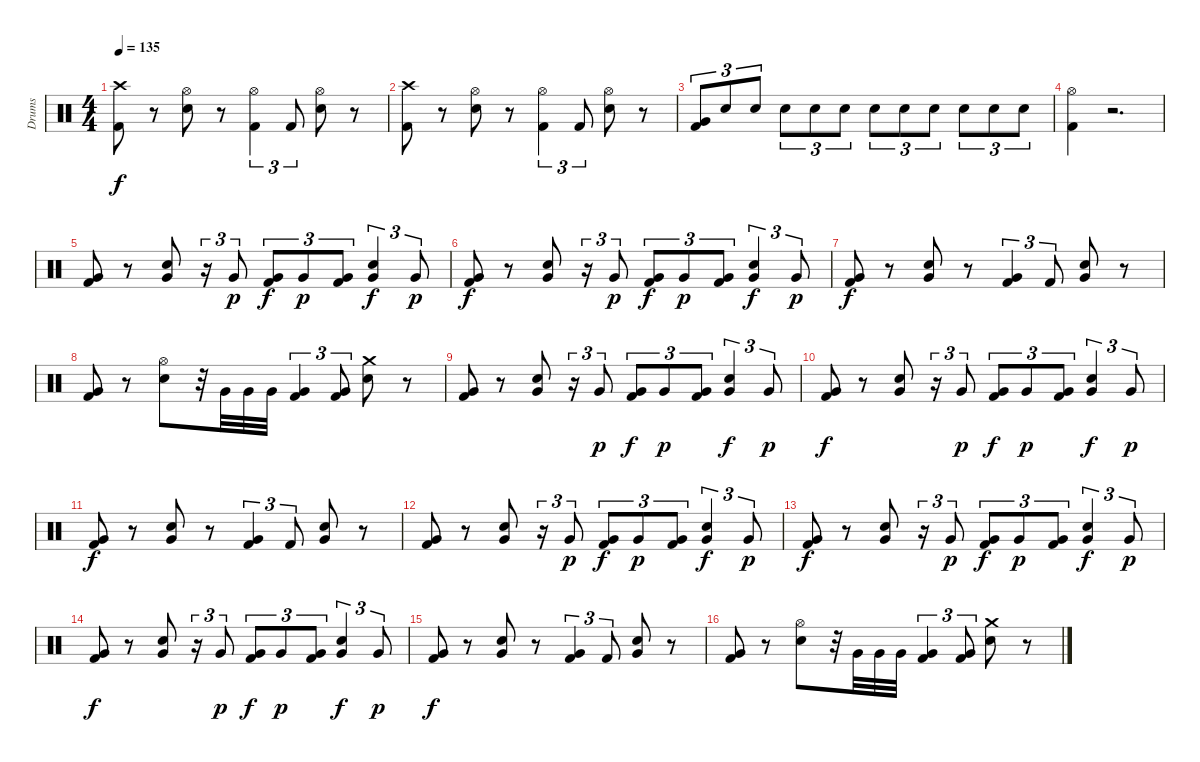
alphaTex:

\track ("Drums" "Drums") {instrument percussion}
\staff {score}
\articulation defaults
\ts (4 4)
\tempo 135
\clef neutral
\ks c
("Crash high (hit)" "Kick (hit) 2").8{dy f} r.8 ("Hi-Hat (open)" "Electric Snare (hit)").8 r.8 ("Hi-Hat (open)" "Kick (hit) 2").4{tu (3 2)} "Kick (hit) 2".8{tu (3 2)} ("Hi-Hat (open)" "Electric Snare (hit)").8 r.8 |
("Crash high (hit)" "Kick (hit) 2").8 r.8 ("Hi-Hat (open)" "Electric Snare (hit)").8 r.8 ("Hi-Hat (open)" "Kick (hit) 2").4{tu (3 2)} "Kick (hit) 2".8{tu (3 2)} ("Hi-Hat (open)" "Electric Snare (hit)").8 r.8 |
("Very Low Tom (hit)" "Kick (hit) 2").8{tu (3 2)} "Electric Snare (hit)".8{tu (3 2)} "Electric Snare (hit)".8{tu (3 2)} "Electric Snare (hit)".8{tu (3 2)} "Electric Snare (hit)".8{tu (3 2)} "Electric Snare (hit)".8{tu (3 2)} "Electric Snare (hit)".8{tu (3 2)} "Electric Snare (hit)".8{tu (3 2)} "Electric Snare (hit)".8{tu (3 2)} "Electric Snare (hit)".8{tu (3 2)} "Electric Snare (hit)".8{tu (3 2)} "Electric Snare (hit)".8{tu (3 2)} |
("Hi-Hat (open)" "Kick (hit) 2").4 r.2{d} |
("Very Low Tom (hit)" "Kick (hit) 2").8 r.8 ("Very Low Tom (hit)" "Electric Snare (hit)").8 r.16{tu (3 2)} "Very Low Tom (hit)".8{tu (3 2) dy p} ("Very Low Tom (hit)" "Kick (hit) 2").8{tu (3 2) dy f} "Very Low Tom (hit)".8{tu (3 2) dy p} ("Very Low Tom (hit)" "Kick (hit) 2").8{tu (3 2)} ("Very Low Tom (hit)" "Electric Snare (hit)").4{tu (3 2) dy f} "Very Low Tom (hit)".8{tu (3 2) dy p} |
("Very Low Tom (hit)" "Kick (hit) 2").8{dy f} r.8 ("Very Low Tom (hit)" "Electric Snare (hit)").8 r.16{tu (3 2)} "Very Low Tom (hit)".8{tu (3 2) dy p} ("Very Low Tom (hit)" "Kick (hit) 2").8{tu (3 2) dy f} "Very Low Tom (hit)".8{tu (3 2) dy p} ("Very Low Tom (hit)" "Kick (hit) 2").8{tu (3 2)} ("Very Low Tom (hit)" "Electric Snare (hit)").4{tu (3 2) dy f} "Very Low Tom (hit)".8{tu (3 2) dy p} |
("Very Low Tom (hit)" "Kick (hit) 2").8{dy f} r.8 ("Very Low Tom (hit)" "Electric Snare (hit)").8 r.8 ("Very Low Tom (hit)" "Kick (hit) 2").4{tu (3 2)} "Kick (hit) 2".8{tu (3 2)} ("Very Low Tom (hit)" "Electric Snare (hit)").8 r.8 |
("Very Low Tom (hit)" "Kick (hit) 2").8 r.8 ("Hi-Hat (open)" "Electric Snare (hit)").8 r.32 "Very Low Tom (hit)".32 "Very Low Tom (hit)".32 "Very Low Tom (hit)".32 ("Very Low Tom (hit)" "Kick (hit) 2").4{tu (3 2)} ("Very Low Tom (hit)" "Kick (hit) 2").8{tu (3 2)} ("Crash medium (hit)" "Electric Snare (hit)").8 r.8 |
("Very Low Tom (hit)" "Kick (hit) 2").8 r.8 ("Very Low Tom (hit)" "Electric Snare (hit)").8 r.16{tu (3 2)} "Very Low Tom (hit)".8{tu (3 2) dy p} ("Very Low Tom (hit)" "Kick (hit) 2").8{tu (3 2) dy f} "Very Low Tom (hit)".8{tu (3 2) dy p} ("Very Low Tom (hit)" "Kick (hit) 2").8{tu (3 2)} ("Very Low Tom (hit)" "Electric Snare (hit)").4{tu (3 2) dy f} "Very Low Tom (hit)".8{tu (3 2) dy p} |
("Very Low Tom (hit)" "Kick (hit) 2").8{dy f} r.8 ("Very Low Tom (hit)" "Electric Snare (hit)").8 r.16{tu (3 2)} "Very Low Tom (hit)".8{tu (3 2) dy p} ("Very Low Tom (hit)" "Kick (hit) 2").8{tu (3 2) dy f} "Very Low Tom (hit)".8{tu (3 2) dy p} ("Very Low Tom (hit)" "Kick (hit) 2").8{tu (3 2)} ("Very Low Tom (hit)" "Electric Snare (hit)").4{tu (3 2) dy f} "Very Low Tom (hit)".8{tu (3 2) dy p} |
("Very Low Tom (hit)" "Kick (hit) 2").8{dy f} r.8 ("Very Low Tom (hit)" "Electric Snare (hit)").8 r.8 ("Very Low Tom (hit)" "Kick (hit) 2").4{tu (3 2)} "Kick (hit) 2".8{tu (3 2)} ("Very Low Tom (hit)" "Electric Snare (hit)").8 r.8 |
("Very Low Tom (hit)" "Kick (hit) 2").8 r.8 ("Very Low Tom (hit)" "Electric Snare (hit)").8 r.16{tu (3 2)} "Very Low Tom (hit)".8{tu (3 2) dy p} ("Very Low Tom (hit)" "Kick (hit) 2").8{tu (3 2) dy f} "Very Low Tom (hit)".8{tu (3 2) dy p} ("Very Low Tom (hit)" "Kick (hit) 2").8{tu (3 2)} ("Very Low Tom (hit)" "Electric Snare (hit)").4{tu (3 2) dy f} "Very Low Tom (hit)".8{tu (3 2) dy p} |
("Very Low Tom (hit)" "Kick (hit) 2").8{dy f} r.8 ("Very Low Tom (hit)" "Electric Snare (hit)").8 r.16{tu (3 2)} "Very Low Tom (hit)".8{tu (3 2) dy p} ("Very Low Tom (hit)" "Kick (hit) 2").8{tu (3 2) dy f} "Very Low Tom (hit)".8{tu (3 2) dy p} ("Very Low Tom (hit)" "Kick (hit) 2").8{tu (3 2)} ("Very Low Tom (hit)" "Electric Snare (hit)").4{tu (3 2) dy f} "Very Low Tom (hit)".8{tu (3 2) dy p} |
("Very Low Tom (hit)" "Kick (hit) 2").8{dy f} r.8 ("Very Low Tom (hit)" "Electric Snare (hit)").8 r.16{tu (3 2)} "Very Low Tom (hit)".8{tu (3 2) dy p} ("Very Low Tom (hit)" "Kick (hit) 2").8{tu (3 2) dy f} "Very Low Tom (hit)".8{tu (3 2) dy p} ("Very Low Tom (hit)" "Kick (hit) 2").8{tu (3 2)} ("Very Low Tom (hit)" "Electric Snare (hit)").4{tu (3 2) dy f} "Very Low Tom (hit)".8{tu (3 2) dy p} |
("Very Low Tom (hit)" "Kick (hit) 2").8{dy f} r.8 ("Very Low Tom (hit)" "Electric Snare (hit)").8 r.8 ("Very Low Tom (hit)" "Kick (hit) 2").4{tu (3 2)} "Kick (hit) 2".8{tu (3 2)} ("Very Low Tom (hit)" "Electric Snare (hit)").8 r.8 |
("Very Low Tom (hit)" "Kick (hit) 2").8 r.8 ("Hi-Hat (open)" "Electric Snare (hit)").8 r.32 "Very Low Tom (hit)".32 "Very Low Tom (hit)".32 "Very Low Tom (hit)".32 ("Very Low Tom (hit)" "Kick (hit) 2").4{tu (3 2)} ("Very Low Tom (hit)" "Kick (hit) 2").8{tu (3 2)} ("Crash medium (hit)" "Electric Snare (hit)").8 r.8
